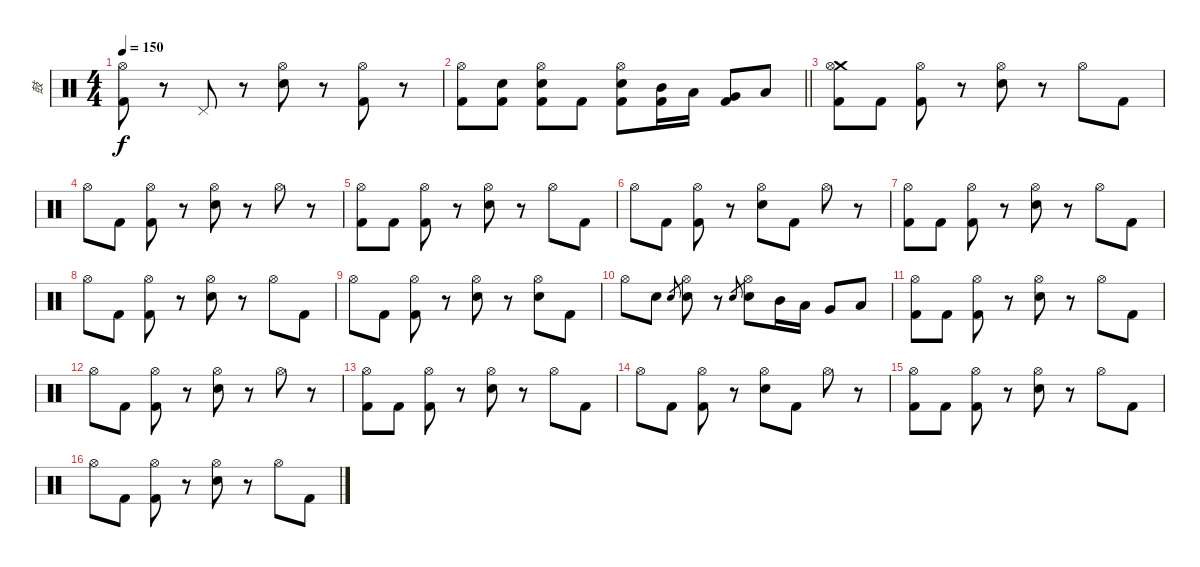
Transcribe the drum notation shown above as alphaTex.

\track ("鼓" "鼓") {instrument percussion}
\staff {score}
\articulation defaults
\ts (4 4)
\tempo 150
\clef neutral
\ks c
("Hi-Hat (open)" "Kick (hit) 2").8{dy f} r.8 "Pedal Hi-Hat (hit)".8 r.8 ("Hi-Hat (open)" "Electric Snare (hit)").8 r.8 ("Hi-Hat (open)" "Kick (hit) 2").8 r.8 |
\barLineRight lightlight
("Hi-Hat (open)" "Kick (hit) 2").8 ("Kick (hit) 2" "Electric Snare (hit)").8 ("Hi-Hat (open)" "Kick (hit) 2" "Electric Snare (hit)").8 "Kick (hit) 2".8 ("Hi-Hat (open)" "Kick (hit) 2" "Electric Snare (hit)").8 ("Kick (hit) 2" "Mid Tom (hit)").16 "Low Tom (hit)".16 ("Kick (hit) 2" "Very Low Tom (hit)").8 "Low Floor Tom (hit)".8 |
("Crash medium (hit)" "Hi-Hat (open)" "Kick (hit) 2").8 "Kick (hit) 2".8 ("Hi-Hat (open)" "Kick (hit) 2").8 r.8 ("Hi-Hat (open)" "Electric Snare (hit)").8 r.8 "Hi-Hat (open)".8 "Kick (hit) 2".8 |
"Hi-Hat (open)".8 "Kick (hit) 2".8 ("Hi-Hat (open)" "Kick (hit) 2").8 r.8 ("Hi-Hat (open)" "Electric Snare (hit)").8 r.8 "Hi-Hat (open)".8 r.8 |
("Hi-Hat (open)" "Kick (hit) 2").8 "Kick (hit) 2".8 ("Hi-Hat (open)" "Kick (hit) 2").8 r.8 ("Hi-Hat (open)" "Electric Snare (hit)").8 r.8 "Hi-Hat (open)".8 "Kick (hit) 2".8 |
"Hi-Hat (open)".8 "Kick (hit) 2".8 ("Hi-Hat (open)" "Kick (hit) 2").8 r.8 ("Hi-Hat (open)" "Electric Snare (hit)").8 "Kick (hit) 2".8 "Hi-Hat (open)".8 r.8 |
("Hi-Hat (open)" "Kick (hit) 2").8 "Kick (hit) 2".8 ("Hi-Hat (open)" "Kick (hit) 2").8 r.8 ("Hi-Hat (open)" "Electric Snare (hit)").8 r.8 "Hi-Hat (open)".8 "Kick (hit) 2".8 |
"Hi-Hat (open)".8 "Kick (hit) 2".8 ("Hi-Hat (open)" "Kick (hit) 2").8 r.8 ("Hi-Hat (open)" "Electric Snare (hit)").8 r.8 "Hi-Hat (open)".8 "Kick (hit) 2".8 |
"Hi-Hat (open)".8 "Kick (hit) 2".8 ("Hi-Hat (open)" "Kick (hit) 2").8 r.8 ("Hi-Hat (open)" "Electric Snare (hit)").8 r.8 ("Hi-Hat (open)" "Electric Snare (hit)").8 "Kick (hit) 2".8 |
"Hi-Hat (open)".8 "Electric Snare (hit)".8 "Electric Snare (hit)".8{gr} ("Hi-Hat (open)" "Electric Snare (hit)").8 r.8 "Electric Snare (hit)".8{gr} ("Hi-Hat (open)" "Electric Snare (hit)").8 "Mid Tom (hit)".16 "Low Tom (hit)".16 "Very Low Tom (hit)".8 "Low Floor Tom (hit)".8 |
("Hi-Hat (open)" "Kick (hit) 2").8 "Kick (hit) 2".8 ("Hi-Hat (open)" "Kick (hit) 2").8 r.8 ("Hi-Hat (open)" "Electric Snare (hit)").8 r.8 "Hi-Hat (open)".8 "Kick (hit) 2".8 |
"Hi-Hat (open)".8 "Kick (hit) 2".8 ("Hi-Hat (open)" "Kick (hit) 2").8 r.8 ("Hi-Hat (open)" "Electric Snare (hit)").8 r.8 "Hi-Hat (open)".8 r.8 |
("Hi-Hat (open)" "Kick (hit) 2").8 "Kick (hit) 2".8 ("Hi-Hat (open)" "Kick (hit) 2").8 r.8 ("Hi-Hat (open)" "Electric Snare (hit)").8 r.8 "Hi-Hat (open)".8 "Kick (hit) 2".8 |
"Hi-Hat (open)".8 "Kick (hit) 2".8 ("Hi-Hat (open)" "Kick (hit) 2").8 r.8 ("Hi-Hat (open)" "Electric Snare (hit)").8 "Kick (hit) 2".8 "Hi-Hat (open)".8 r.8 |
("Hi-Hat (open)" "Kick (hit) 2").8 "Kick (hit) 2".8 ("Hi-Hat (open)" "Kick (hit) 2").8 r.8 ("Hi-Hat (open)" "Electric Snare (hit)").8 r.8 "Hi-Hat (open)".8 "Kick (hit) 2".8 |
"Hi-Hat (open)".8 "Kick (hit) 2".8 ("Hi-Hat (open)" "Kick (hit) 2").8 r.8 ("Hi-Hat (open)" "Electric Snare (hit)").8 r.8 "Hi-Hat (open)".8 "Kick (hit) 2".8
